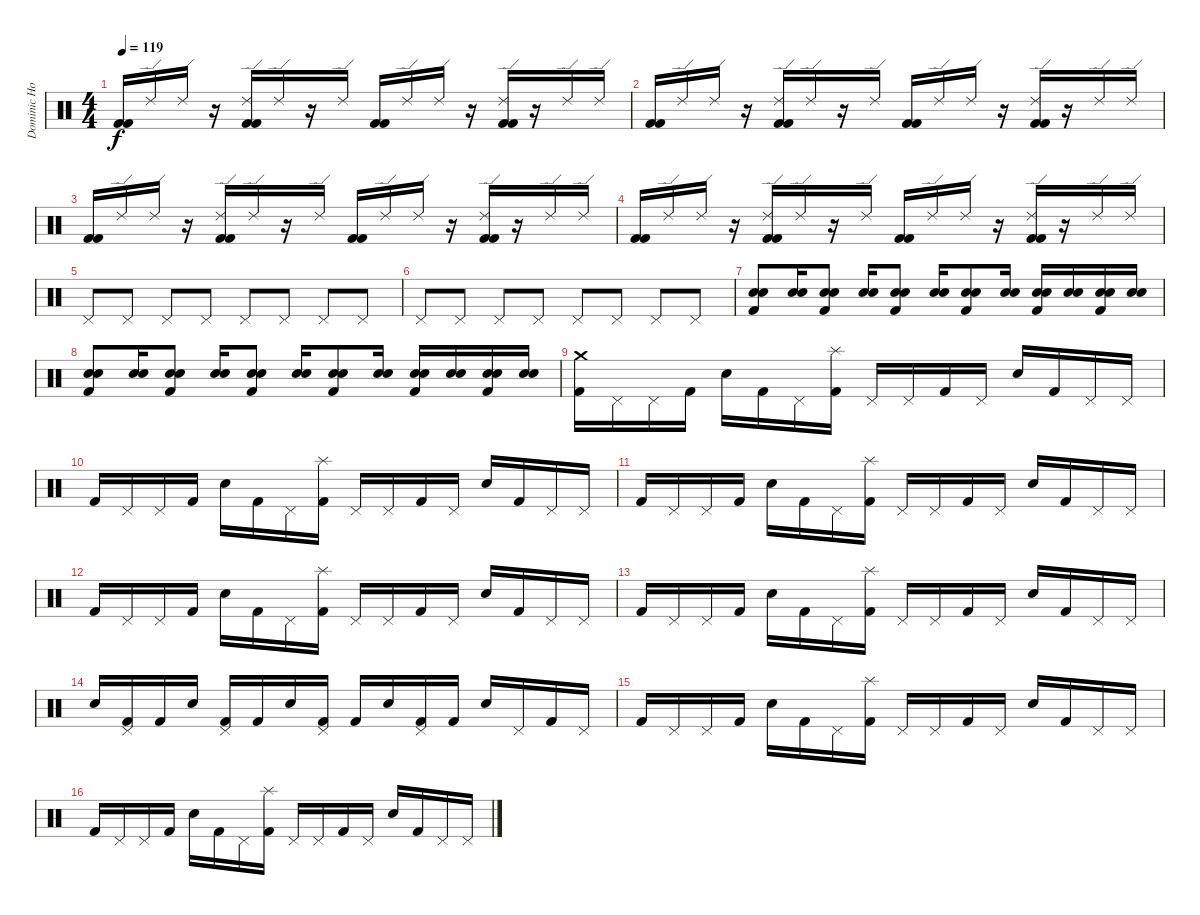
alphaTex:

\track ("Dominic Howard" "Dominic Ho") {instrument percussion}
\staff {score}
\articulation defaults
\ts (4 4)
\tempo 119
\clef neutral
\ks c
("Kick (hit) 2" "Kick (hit) 2").16{dy f} "Ride (edge) 2".16 "Ride (edge) 2".16 r.16 ("Ride (edge) 2" "Kick (hit) 2" "Kick (hit) 2").16 "Ride (edge) 2".16 r.16 "Ride (edge) 2".16 ("Kick (hit) 2" "Kick (hit) 2").16 "Ride (edge) 2".16 "Ride (edge) 2".16 r.16 ("Ride (edge) 2" "Kick (hit) 2" "Kick (hit) 2").16 r.16 "Ride (edge) 2".16 "Ride (edge) 2".16 |
("Kick (hit) 2" "Kick (hit) 2").16 "Ride (edge) 2".16 "Ride (edge) 2".16 r.16 ("Ride (edge) 2" "Kick (hit) 2" "Kick (hit) 2").16 "Ride (edge) 2".16 r.16 "Ride (edge) 2".16 ("Kick (hit) 2" "Kick (hit) 2").16 "Ride (edge) 2".16 "Ride (edge) 2".16 r.16 ("Ride (edge) 2" "Kick (hit) 2" "Kick (hit) 2").16 r.16 "Ride (edge) 2".16 "Ride (edge) 2".16 |
("Kick (hit) 2" "Kick (hit) 2").16 "Ride (edge) 2".16 "Ride (edge) 2".16 r.16 ("Ride (edge) 2" "Kick (hit) 2" "Kick (hit) 2").16 "Ride (edge) 2".16 r.16 "Ride (edge) 2".16 ("Kick (hit) 2" "Kick (hit) 2").16 "Ride (edge) 2".16 "Ride (edge) 2".16 r.16 ("Ride (edge) 2" "Kick (hit) 2" "Kick (hit) 2").16 r.16 "Ride (edge) 2".16 "Ride (edge) 2".16 |
("Kick (hit) 2" "Kick (hit) 2").16 "Ride (edge) 2".16 "Ride (edge) 2".16 r.16 ("Ride (edge) 2" "Kick (hit) 2" "Kick (hit) 2").16 "Ride (edge) 2".16 r.16 "Ride (edge) 2".16 ("Kick (hit) 2" "Kick (hit) 2").16 "Ride (edge) 2".16 "Ride (edge) 2".16 r.16 ("Ride (edge) 2" "Kick (hit) 2" "Kick (hit) 2").16 r.16 "Ride (edge) 2".16 "Ride (edge) 2".16 |
"Pedal Hi-Hat (hit)".8 "Pedal Hi-Hat (hit)".8 "Pedal Hi-Hat (hit)".8 "Pedal Hi-Hat (hit)".8 "Pedal Hi-Hat (hit)".8 "Pedal Hi-Hat (hit)".8 "Pedal Hi-Hat (hit)".8 "Pedal Hi-Hat (hit)".8 |
"Pedal Hi-Hat (hit)".8 "Pedal Hi-Hat (hit)".8 "Pedal Hi-Hat (hit)".8 "Pedal Hi-Hat (hit)".8 "Pedal Hi-Hat (hit)".8 "Pedal Hi-Hat (hit)".8 "Pedal Hi-Hat (hit)".8 "Pedal Hi-Hat (hit)".8 |
("Electric Snare (hit)" "Snare (hit) 2" "Kick (hit) 2").8 ("Electric Snare (hit)" "Snare (hit) 2").16 ("Electric Snare (hit)" "Snare (hit) 2" "Kick (hit) 2").8 ("Electric Snare (hit)" "Snare (hit) 2").16 ("Electric Snare (hit)" "Snare (hit) 2" "Kick (hit) 2").8 ("Electric Snare (hit)" "Snare (hit) 2").16 ("Electric Snare (hit)" "Snare (hit) 2" "Kick (hit) 2").8 ("Electric Snare (hit)" "Snare (hit) 2").16 ("Electric Snare (hit)" "Snare (hit) 2" "Kick (hit) 2").16 ("Electric Snare (hit)" "Snare (hit) 2").16 ("Electric Snare (hit)" "Snare (hit) 2" "Kick (hit) 2").16 ("Electric Snare (hit)" "Snare (hit) 2").16 |
("Electric Snare (hit)" "Snare (hit) 2" "Kick (hit) 2").8 ("Electric Snare (hit)" "Snare (hit) 2").16 ("Electric Snare (hit)" "Snare (hit) 2" "Kick (hit) 2").8 ("Electric Snare (hit)" "Snare (hit) 2").16 ("Electric Snare (hit)" "Snare (hit) 2" "Kick (hit) 2").8 ("Electric Snare (hit)" "Snare (hit) 2").16 ("Electric Snare (hit)" "Snare (hit) 2" "Kick (hit) 2").8 ("Electric Snare (hit)" "Snare (hit) 2").16 ("Electric Snare (hit)" "Snare (hit) 2" "Kick (hit) 2").16 ("Electric Snare (hit)" "Snare (hit) 2").16 ("Electric Snare (hit)" "Snare (hit) 2" "Kick (hit) 2").16 ("Electric Snare (hit)" "Snare (hit) 2").16 |
("Crash medium (hit)" "Kick (hit) 2").16 "Pedal Hi-Hat (hit)".16 "Pedal Hi-Hat (hit)".16 "Kick (hit) 2".16 "Electric Snare (hit)".16 "Kick (hit) 2".16 "Pedal Hi-Hat (hit)".16 ("Splash (hit)" "Kick (hit) 2").16 "Pedal Hi-Hat (hit)".16 "Pedal Hi-Hat (hit)".16 "Kick (hit) 2".16 "Pedal Hi-Hat (hit)".16 "Electric Snare (hit)".16 "Kick (hit) 2".16 "Pedal Hi-Hat (hit)".16 "Pedal Hi-Hat (hit)".16 |
"Kick (hit) 2".16 "Pedal Hi-Hat (hit)".16 "Pedal Hi-Hat (hit)".16 "Kick (hit) 2".16 "Electric Snare (hit)".16 "Kick (hit) 2".16 "Pedal Hi-Hat (hit)".16 ("Splash (hit)" "Kick (hit) 2").16 "Pedal Hi-Hat (hit)".16 "Pedal Hi-Hat (hit)".16 "Kick (hit) 2".16 "Pedal Hi-Hat (hit)".16 "Electric Snare (hit)".16 "Kick (hit) 2".16 "Pedal Hi-Hat (hit)".16 "Pedal Hi-Hat (hit)".16 |
"Kick (hit) 2".16 "Pedal Hi-Hat (hit)".16 "Pedal Hi-Hat (hit)".16 "Kick (hit) 2".16 "Electric Snare (hit)".16 "Kick (hit) 2".16 "Pedal Hi-Hat (hit)".16 ("Splash (hit)" "Kick (hit) 2").16 "Pedal Hi-Hat (hit)".16 "Pedal Hi-Hat (hit)".16 "Kick (hit) 2".16 "Pedal Hi-Hat (hit)".16 "Electric Snare (hit)".16 "Kick (hit) 2".16 "Pedal Hi-Hat (hit)".16 "Pedal Hi-Hat (hit)".16 |
"Kick (hit) 2".16 "Pedal Hi-Hat (hit)".16 "Pedal Hi-Hat (hit)".16 "Kick (hit) 2".16 "Electric Snare (hit)".16 "Kick (hit) 2".16 "Pedal Hi-Hat (hit)".16 ("Splash (hit)" "Kick (hit) 2").16 "Pedal Hi-Hat (hit)".16 "Pedal Hi-Hat (hit)".16 "Kick (hit) 2".16 "Pedal Hi-Hat (hit)".16 "Electric Snare (hit)".16 "Kick (hit) 2".16 "Pedal Hi-Hat (hit)".16 "Pedal Hi-Hat (hit)".16 |
"Kick (hit) 2".16 "Pedal Hi-Hat (hit)".16 "Pedal Hi-Hat (hit)".16 "Kick (hit) 2".16 "Electric Snare (hit)".16 "Kick (hit) 2".16 "Pedal Hi-Hat (hit)".16 ("Splash (hit)" "Kick (hit) 2").16 "Pedal Hi-Hat (hit)".16 "Pedal Hi-Hat (hit)".16 "Kick (hit) 2".16 "Pedal Hi-Hat (hit)".16 "Electric Snare (hit)".16 "Kick (hit) 2".16 "Pedal Hi-Hat (hit)".16 "Pedal Hi-Hat (hit)".16 |
"Electric Snare (hit)".16 ("Pedal Hi-Hat (hit)" "Kick (hit) 2").16 "Kick (hit) 2".16 "Electric Snare (hit)".16 ("Pedal Hi-Hat (hit)" "Kick (hit) 2").16 "Kick (hit) 2".16 "Electric Snare (hit)".16 ("Pedal Hi-Hat (hit)" "Kick (hit) 2").16 "Kick (hit) 2".16 "Electric Snare (hit)".16 ("Pedal Hi-Hat (hit)" "Kick (hit) 2").16 "Kick (hit) 2".16 "Electric Snare (hit)".16 "Pedal Hi-Hat (hit)".16 "Kick (hit) 2".16 "Pedal Hi-Hat (hit)".16 |
"Kick (hit) 2".16 "Pedal Hi-Hat (hit)".16 "Pedal Hi-Hat (hit)".16 "Kick (hit) 2".16 "Electric Snare (hit)".16 "Kick (hit) 2".16 "Pedal Hi-Hat (hit)".16 ("Splash (hit)" "Kick (hit) 2").16 "Pedal Hi-Hat (hit)".16 "Pedal Hi-Hat (hit)".16 "Kick (hit) 2".16 "Pedal Hi-Hat (hit)".16 "Electric Snare (hit)".16 "Kick (hit) 2".16 "Pedal Hi-Hat (hit)".16 "Pedal Hi-Hat (hit)".16 |
"Kick (hit) 2".16 "Pedal Hi-Hat (hit)".16 "Pedal Hi-Hat (hit)".16 "Kick (hit) 2".16 "Electric Snare (hit)".16 "Kick (hit) 2".16 "Pedal Hi-Hat (hit)".16 ("Splash (hit)" "Kick (hit) 2").16 "Pedal Hi-Hat (hit)".16 "Pedal Hi-Hat (hit)".16 "Kick (hit) 2".16 "Pedal Hi-Hat (hit)".16 "Electric Snare (hit)".16 "Kick (hit) 2".16 "Pedal Hi-Hat (hit)".16 "Pedal Hi-Hat (hit)".16
